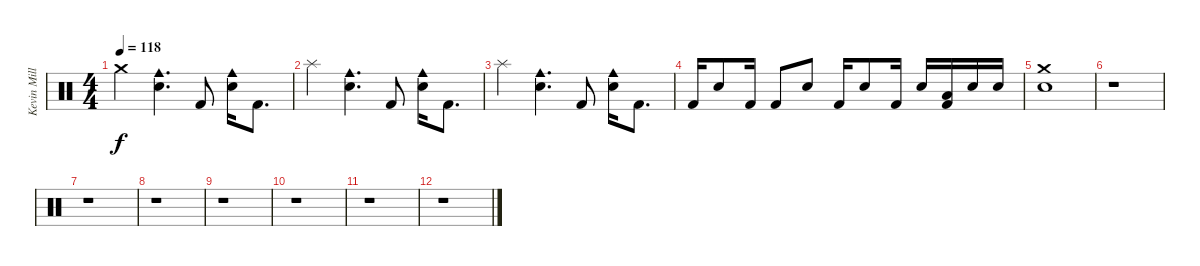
\track ("Kevin Miller (Drums)" "Kevin Mill") {instrument percussion}
\staff {score}
\articulation defaults
\ts (4 4)
\tempo 118
\clef neutral
\ks c "Crash medium (hit)".4{dy f}
("Electric Snare (hit)" "Cowbell medium (hit)").4{d} "Kick (hit) 2".8 ("Electric Snare (hit)" "Cowbell medium (hit)").16 "Kick (hit) 2".8{d} |
"Splash (hit)".4 ("Electric Snare (hit)" "Cowbell medium (hit)").4{d} "Kick (hit) 2".8 ("Electric Snare (hit)" "Cowbell medium (hit)").16 "Kick (hit) 2".8{d} |
"Splash (hit)".4 ("Electric Snare (hit)" "Cowbell medium (hit)").4{d} "Kick (hit) 2".8 ("Electric Snare (hit)" "Cowbell medium (hit)").16 "Kick (hit) 2".8{d} |
"Kick (hit) 2".16 "Electric Snare (hit)".8 "Kick (hit) 2".16 "Kick (hit) 2".8 "Electric Snare (hit)".8 "Kick (hit) 2".16 "Electric Snare (hit)".8 "Kick (hit) 2".16 "Electric Snare (hit)".16 ("Kick (hit) 2" "Low Tom (hit)").16 "Electric Snare (hit)".16 "Electric Snare (hit)".16 |
("Crash medium (hit)" "Electric Snare (hit)").1 |
r.1 |
r.1 |
r.1 |
r.1 |
r.1 |
r.1 |
r.1
